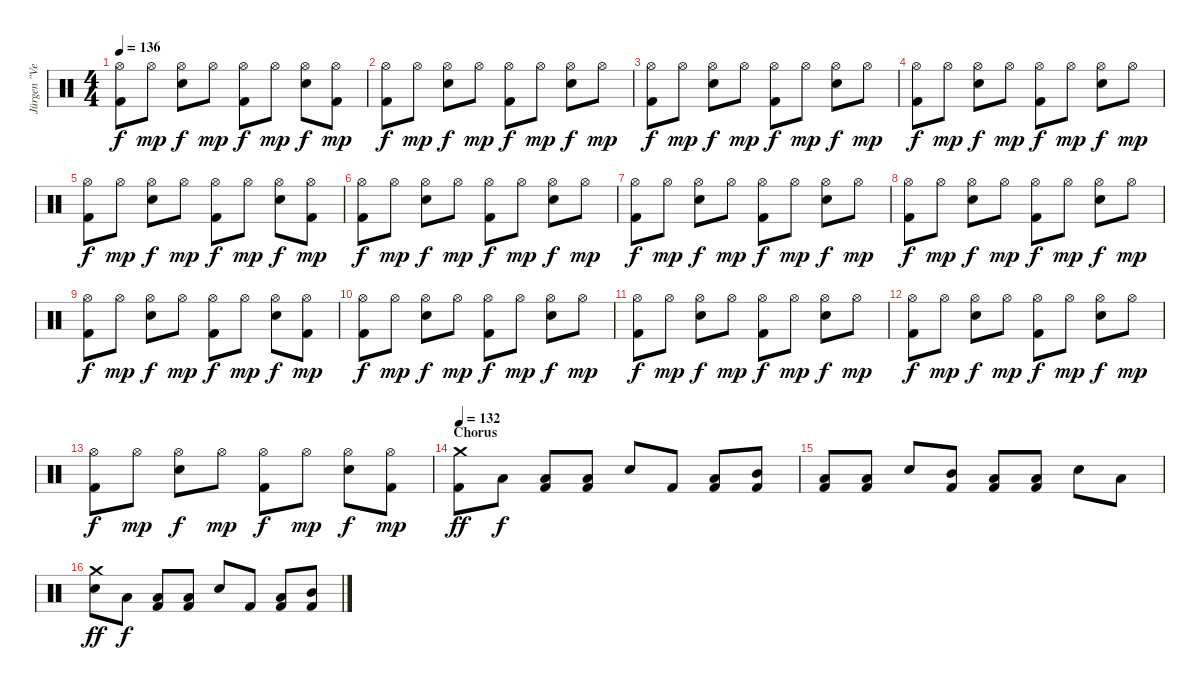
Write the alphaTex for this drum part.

\track ("Jürgen \"Ventor\" Reil" "Jürgen \"Ve") {instrument percussion}
\staff {score}
\articulation defaults
\ts (4 4)
\tempo 136
\clef neutral
\ks c
("Kick (hit) 2" "Hi-Hat (open)").8{dy f} "Hi-Hat (open)".8{dy mp} ("Hi-Hat (open)" "Snare (hit) 2").8{dy f} "Hi-Hat (open)".8{dy mp} ("Kick (hit) 2" "Hi-Hat (open)").8{dy f} "Hi-Hat (open)".8{dy mp} ("Hi-Hat (open)" "Snare (hit) 2").8{dy f} ("Kick (hit) 2" "Hi-Hat (open)").8{dy mp} |
("Kick (hit) 2" "Hi-Hat (open)").8{dy f} "Hi-Hat (open)".8{dy mp} ("Hi-Hat (open)" "Snare (hit) 2").8{dy f} "Hi-Hat (open)".8{dy mp} ("Kick (hit) 2" "Hi-Hat (open)").8{dy f} "Hi-Hat (open)".8{dy mp} ("Hi-Hat (open)" "Snare (hit) 2").8{dy f} "Hi-Hat (open)".8{dy mp} |
("Kick (hit) 2" "Hi-Hat (open)").8{dy f} "Hi-Hat (open)".8{dy mp} ("Hi-Hat (open)" "Snare (hit) 2").8{dy f} "Hi-Hat (open)".8{dy mp} ("Kick (hit) 2" "Hi-Hat (open)").8{dy f} "Hi-Hat (open)".8{dy mp} ("Hi-Hat (open)" "Snare (hit) 2").8{dy f} "Hi-Hat (open)".8{dy mp} |
("Kick (hit) 2" "Hi-Hat (open)").8{dy f} "Hi-Hat (open)".8{dy mp} ("Hi-Hat (open)" "Snare (hit) 2").8{dy f} "Hi-Hat (open)".8{dy mp} ("Kick (hit) 2" "Hi-Hat (open)").8{dy f} "Hi-Hat (open)".8{dy mp} ("Hi-Hat (open)" "Snare (hit) 2").8{dy f} "Hi-Hat (open)".8{dy mp} |
("Kick (hit) 2" "Hi-Hat (open)").8{dy f} "Hi-Hat (open)".8{dy mp} ("Hi-Hat (open)" "Snare (hit) 2").8{dy f} "Hi-Hat (open)".8{dy mp} ("Kick (hit) 2" "Hi-Hat (open)").8{dy f} "Hi-Hat (open)".8{dy mp} ("Hi-Hat (open)" "Snare (hit) 2").8{dy f} ("Kick (hit) 2" "Hi-Hat (open)").8{dy mp} |
("Kick (hit) 2" "Hi-Hat (open)").8{dy f} "Hi-Hat (open)".8{dy mp} ("Hi-Hat (open)" "Snare (hit) 2").8{dy f} "Hi-Hat (open)".8{dy mp} ("Kick (hit) 2" "Hi-Hat (open)").8{dy f} "Hi-Hat (open)".8{dy mp} ("Hi-Hat (open)" "Snare (hit) 2").8{dy f} "Hi-Hat (open)".8{dy mp} |
("Kick (hit) 2" "Hi-Hat (open)").8{dy f} "Hi-Hat (open)".8{dy mp} ("Hi-Hat (open)" "Snare (hit) 2").8{dy f} "Hi-Hat (open)".8{dy mp} ("Kick (hit) 2" "Hi-Hat (open)").8{dy f} "Hi-Hat (open)".8{dy mp} ("Hi-Hat (open)" "Snare (hit) 2").8{dy f} "Hi-Hat (open)".8{dy mp} |
("Kick (hit) 2" "Hi-Hat (open)").8{dy f} "Hi-Hat (open)".8{dy mp} ("Hi-Hat (open)" "Snare (hit) 2").8{dy f} "Hi-Hat (open)".8{dy mp} ("Kick (hit) 2" "Hi-Hat (open)").8{dy f} "Hi-Hat (open)".8{dy mp} ("Hi-Hat (open)" "Snare (hit) 2").8{dy f} "Hi-Hat (open)".8{dy mp} |
("Kick (hit) 2" "Hi-Hat (open)").8{dy f} "Hi-Hat (open)".8{dy mp} ("Hi-Hat (open)" "Snare (hit) 2").8{dy f} "Hi-Hat (open)".8{dy mp} ("Kick (hit) 2" "Hi-Hat (open)").8{dy f} "Hi-Hat (open)".8{dy mp} ("Hi-Hat (open)" "Snare (hit) 2").8{dy f} ("Kick (hit) 2" "Hi-Hat (open)").8{dy mp} |
("Kick (hit) 2" "Hi-Hat (open)").8{dy f} "Hi-Hat (open)".8{dy mp} ("Hi-Hat (open)" "Snare (hit) 2").8{dy f} "Hi-Hat (open)".8{dy mp} ("Kick (hit) 2" "Hi-Hat (open)").8{dy f} "Hi-Hat (open)".8{dy mp} ("Hi-Hat (open)" "Snare (hit) 2").8{dy f} "Hi-Hat (open)".8{dy mp} |
("Kick (hit) 2" "Hi-Hat (open)").8{dy f} "Hi-Hat (open)".8{dy mp} ("Hi-Hat (open)" "Snare (hit) 2").8{dy f} "Hi-Hat (open)".8{dy mp} ("Kick (hit) 2" "Hi-Hat (open)").8{dy f} "Hi-Hat (open)".8{dy mp} ("Hi-Hat (open)" "Snare (hit) 2").8{dy f} "Hi-Hat (open)".8{dy mp} |
("Kick (hit) 2" "Hi-Hat (open)").8{dy f} "Hi-Hat (open)".8{dy mp} ("Hi-Hat (open)" "Snare (hit) 2").8{dy f} "Hi-Hat (open)".8{dy mp} ("Kick (hit) 2" "Hi-Hat (open)").8{dy f} "Hi-Hat (open)".8{dy mp} ("Hi-Hat (open)" "Snare (hit) 2").8{dy f} "Hi-Hat (open)".8{dy mp} |
("Kick (hit) 2" "Hi-Hat (open)").8{dy f} "Hi-Hat (open)".8{dy mp} ("Hi-Hat (open)" "Snare (hit) 2").8{dy f} "Hi-Hat (open)".8{dy mp} ("Kick (hit) 2" "Hi-Hat (open)").8{dy f} "Hi-Hat (open)".8{dy mp} ("Hi-Hat (open)" "Snare (hit) 2").8{dy f} ("Kick (hit) 2" "Hi-Hat (open)").8{dy mp} |
\section ("" "Chorus")
\tempo 132
("Kick (hit) 2" "Crash medium (hit)").8{dy ff} "Low Tom (hit)".8{dy f} ("Kick (hit) 2" "Low Tom (hit)").8 ("Kick (hit) 2" "Low Tom (hit)").8 "Snare (hit) 2".8 "Kick (hit) 2".8 ("Kick (hit) 2" "Low Tom (hit)").8 ("Kick (hit) 2" "Mid Tom (hit)").8 |
("Kick (hit) 2" "Low Tom (hit)").8 ("Kick (hit) 2" "Low Tom (hit)").8 "Snare (hit) 2".8 ("Kick (hit) 2" "Mid Tom (hit)").8 ("Kick (hit) 2" "Low Tom (hit)").8 ("Kick (hit) 2" "Low Tom (hit)").8 "Snare (hit) 2".8 "Low Tom (hit)".8 |
("Crash medium (hit)" "Snare (hit) 2").8{dy ff} "Low Tom (hit)".8{dy f} ("Kick (hit) 2" "Low Tom (hit)").8 ("Kick (hit) 2" "Low Tom (hit)").8 "Snare (hit) 2".8 "Kick (hit) 2".8 ("Kick (hit) 2" "Low Tom (hit)").8 ("Kick (hit) 2" "Mid Tom (hit)").8
